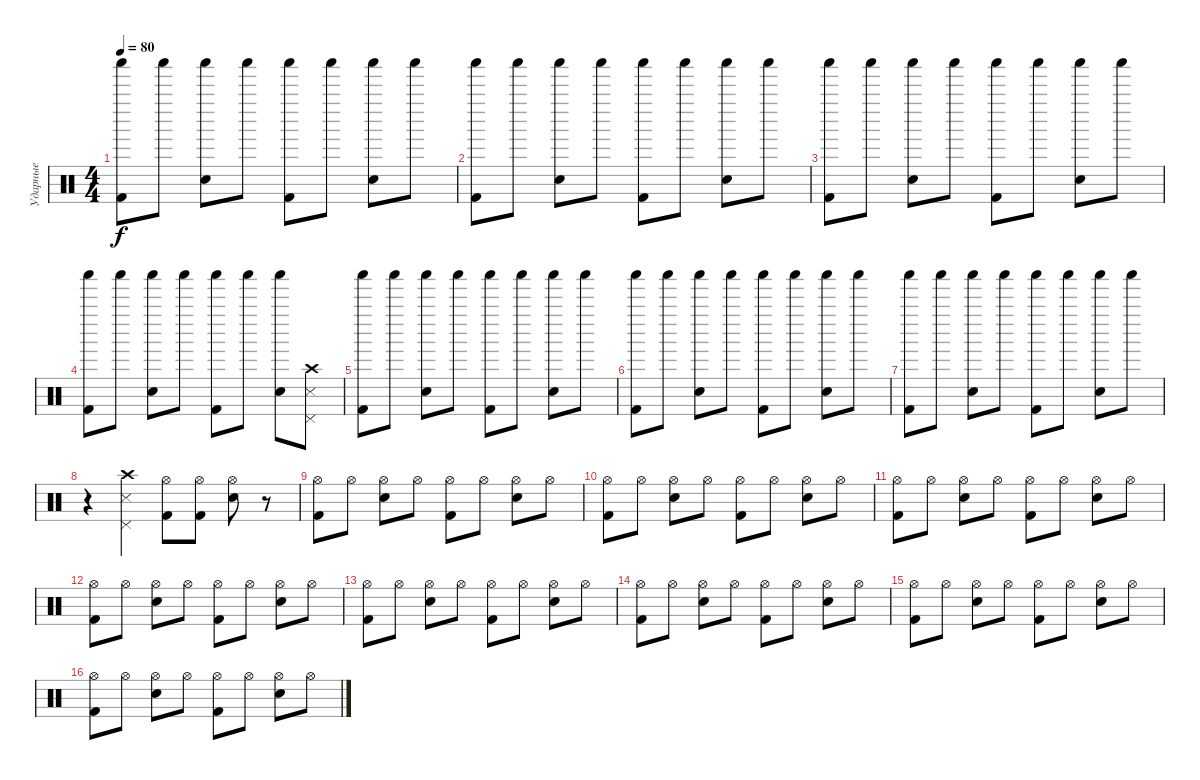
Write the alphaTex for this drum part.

\track ("Ударные" "Ударные") {instrument percussion}
\staff {score}
\articulation defaults
\ts (4 4)
\tempo 80
\clef neutral
\ks c
("Shaker (hit)" "Kick (hit) 2").8{dy f} "Shaker (hit)".8 ("Shaker (hit)" "Snare (hit) 2").8 "Shaker (hit)".8 ("Shaker (hit)" "Kick (hit) 2").8 "Shaker (hit)".8 ("Shaker (hit)" "Snare (hit) 2").8 "Shaker (hit)".8 |
("Shaker (hit)" "Kick (hit) 2").8 "Shaker (hit)".8 ("Shaker (hit)" "Snare (hit) 2").8 "Shaker (hit)".8 ("Shaker (hit)" "Kick (hit) 2").8 "Shaker (hit)".8 ("Shaker (hit)" "Snare (hit) 2").8 "Shaker (hit)".8 |
("Shaker (hit)" "Kick (hit) 2").8 "Shaker (hit)".8 ("Shaker (hit)" "Snare (hit) 2").8 "Shaker (hit)".8 ("Shaker (hit)" "Kick (hit) 2").8 "Shaker (hit)".8 ("Shaker (hit)" "Snare (hit) 2").8 "Shaker (hit)".8 |
("Shaker (hit)" "Kick (hit) 2").8 "Shaker (hit)".8 ("Shaker (hit)" "Snare (hit) 2").8 "Shaker (hit)".8 ("Shaker (hit)" "Kick (hit) 2").8 "Shaker (hit)".8 ("Shaker (hit)" "Snare (hit) 2").8 ("Pedal Hi-Hat (hit)" "Metronome (hit)" "Crash high (hit)").8 |
("Shaker (hit)" "Kick (hit) 2").8 "Shaker (hit)".8 ("Shaker (hit)" "Snare (hit) 2").8 "Shaker (hit)".8 ("Shaker (hit)" "Kick (hit) 2").8 "Shaker (hit)".8 ("Shaker (hit)" "Snare (hit) 2").8 "Shaker (hit)".8 |
("Shaker (hit)" "Kick (hit) 2").8 "Shaker (hit)".8 ("Shaker (hit)" "Snare (hit) 2").8 "Shaker (hit)".8 ("Shaker (hit)" "Kick (hit) 2").8 "Shaker (hit)".8 ("Shaker (hit)" "Snare (hit) 2").8 "Shaker (hit)".8 |
("Shaker (hit)" "Kick (hit) 2").8 "Shaker (hit)".8 ("Shaker (hit)" "Snare (hit) 2").8 "Shaker (hit)".8 ("Shaker (hit)" "Kick (hit) 2").8 "Shaker (hit)".8 ("Shaker (hit)" "Snare (hit) 2").8 "Shaker (hit)".8 |
r.4 ("Pedal Hi-Hat (hit)" "Metronome (hit)" "Crash high (hit)").4 ("Hi-Hat (open)" "Kick (hit) 2").8 ("Hi-Hat (open)" "Kick (hit) 2").8 ("Hi-Hat (open)" "Snare (hit) 2").8 r.8 |
("Hi-Hat (open)" "Kick (hit) 2").8 "Hi-Hat (open)".8 ("Hi-Hat (open)" "Snare (hit) 2").8 "Hi-Hat (open)".8 ("Hi-Hat (open)" "Kick (hit) 2").8 "Hi-Hat (open)".8 ("Hi-Hat (open)" "Snare (hit) 2").8 "Hi-Hat (open)".8 |
("Hi-Hat (open)" "Kick (hit) 2").8 "Hi-Hat (open)".8 ("Hi-Hat (open)" "Snare (hit) 2").8 "Hi-Hat (open)".8 ("Hi-Hat (open)" "Kick (hit) 2").8 "Hi-Hat (open)".8 ("Hi-Hat (open)" "Snare (hit) 2").8 "Hi-Hat (open)".8 |
("Hi-Hat (open)" "Kick (hit) 2").8 "Hi-Hat (open)".8 ("Hi-Hat (open)" "Snare (hit) 2").8 "Hi-Hat (open)".8 ("Hi-Hat (open)" "Kick (hit) 2").8 "Hi-Hat (open)".8 ("Hi-Hat (open)" "Snare (hit) 2").8 "Hi-Hat (open)".8 |
("Hi-Hat (open)" "Kick (hit) 2").8 "Hi-Hat (open)".8 ("Hi-Hat (open)" "Snare (hit) 2").8 "Hi-Hat (open)".8 ("Hi-Hat (open)" "Kick (hit) 2").8 "Hi-Hat (open)".8 ("Hi-Hat (open)" "Snare (hit) 2").8 "Hi-Hat (open)".8 |
("Hi-Hat (open)" "Kick (hit) 2").8 "Hi-Hat (open)".8 ("Hi-Hat (open)" "Snare (hit) 2").8 "Hi-Hat (open)".8 ("Hi-Hat (open)" "Kick (hit) 2").8 "Hi-Hat (open)".8 ("Hi-Hat (open)" "Snare (hit) 2").8 "Hi-Hat (open)".8 |
("Hi-Hat (open)" "Kick (hit) 2").8 "Hi-Hat (open)".8 ("Hi-Hat (open)" "Snare (hit) 2").8 "Hi-Hat (open)".8 ("Hi-Hat (open)" "Kick (hit) 2").8 "Hi-Hat (open)".8 ("Hi-Hat (open)" "Snare (hit) 2").8 "Hi-Hat (open)".8 |
("Hi-Hat (open)" "Kick (hit) 2").8 "Hi-Hat (open)".8 ("Hi-Hat (open)" "Snare (hit) 2").8 "Hi-Hat (open)".8 ("Hi-Hat (open)" "Kick (hit) 2").8 "Hi-Hat (open)".8 ("Hi-Hat (open)" "Snare (hit) 2").8 "Hi-Hat (open)".8 |
("Hi-Hat (open)" "Kick (hit) 2").8 "Hi-Hat (open)".8 ("Hi-Hat (open)" "Snare (hit) 2").8 "Hi-Hat (open)".8 ("Hi-Hat (open)" "Kick (hit) 2").8 "Hi-Hat (open)".8 ("Hi-Hat (open)" "Snare (hit) 2").8 "Hi-Hat (open)".8
